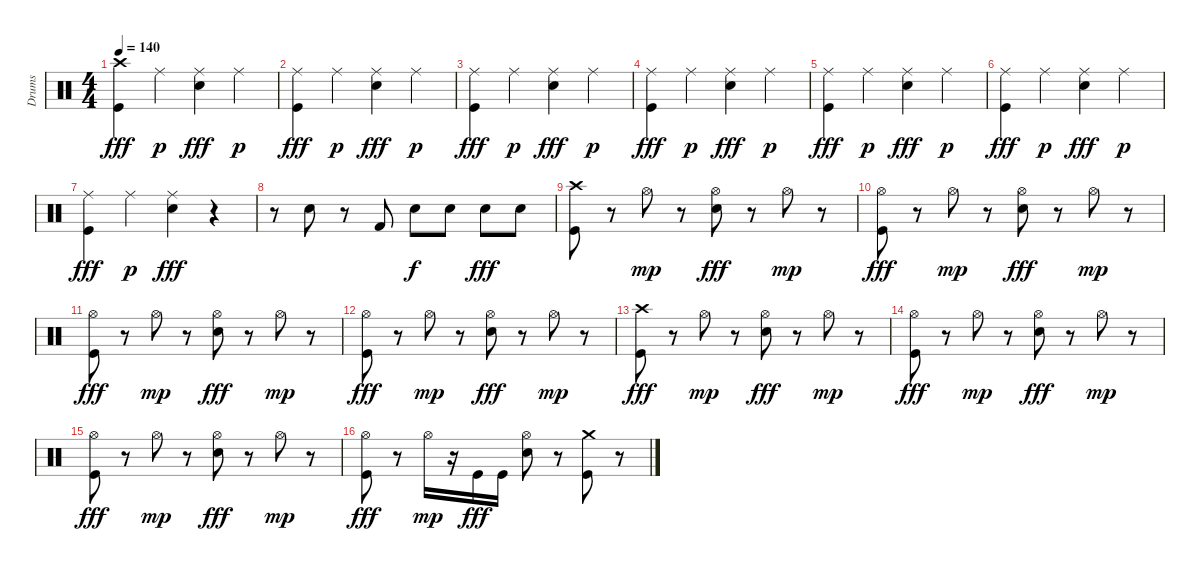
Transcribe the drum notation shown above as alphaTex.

\track ("Drums" "Drums") {instrument percussion}
\staff {score}
\articulation defaults
\ts (4 4)
\tempo 140
\clef neutral
\ks c
("Crash high (hit)" "Kick (hit)").4{dy fff} "Ride (middle)".4{dy p} ("Ride (middle)" "Snare (hit) 2").4{dy fff} "Ride (middle)".4{dy p} |
("Ride (middle)" "Kick (hit)").4{dy fff} "Ride (middle)".4{dy p} ("Ride (middle)" "Snare (hit) 2").4{dy fff} "Ride (middle)".4{dy p} |
("Ride (middle)" "Kick (hit)").4{dy fff} "Ride (middle)".4{dy p} ("Ride (middle)" "Snare (hit) 2").4{dy fff} "Ride (middle)".4{dy p} |
("Ride (middle)" "Kick (hit)").4{dy fff} "Ride (middle)".4{dy p} ("Ride (middle)" "Snare (hit) 2").4{dy fff} "Ride (middle)".4{dy p} |
("Ride (middle)" "Kick (hit)").4{dy fff} "Ride (middle)".4{dy p} ("Ride (middle)" "Snare (hit) 2").4{dy fff} "Ride (middle)".4{dy p} |
("Ride (middle)" "Kick (hit)").4{dy fff} "Ride (middle)".4{dy p} ("Ride (middle)" "Snare (hit) 2").4{dy fff} "Ride (middle)".4{dy p} |
("Ride (middle)" "Kick (hit)").4{dy fff} "Ride (middle)".4{dy p} ("Ride (middle)" "Snare (hit) 2").4{dy fff} r.4 |
r.8 "Snare (hit) 2".8 r.8 "Kick (hit) 2".8 "Snare (hit) 2".8{dy f} "Snare (hit) 2".8 "Snare (hit) 2".8{dy fff} "Snare (hit) 2".8 |
("Crash high (hit)" "Kick (hit)").8 r.8 "Hi-Hat (open)".8{dy mp} r.8 ("Hi-Hat (open)" "Snare (hit) 2").8{dy fff} r.8 "Hi-Hat (open)".8{dy mp} r.8 |
("Hi-Hat (open)" "Kick (hit)").8{dy fff} r.8 "Hi-Hat (open)".8{dy mp} r.8 ("Hi-Hat (open)" "Snare (hit) 2").8{dy fff} r.8 "Hi-Hat (open)".8{dy mp} r.8 |
("Hi-Hat (open)" "Kick (hit)").8{dy fff} r.8 "Hi-Hat (open)".8{dy mp} r.8 ("Hi-Hat (open)" "Snare (hit) 2").8{dy fff} r.8 "Hi-Hat (open)".8{dy mp} r.8 |
("Hi-Hat (open)" "Kick (hit)").8{dy fff} r.8 "Hi-Hat (open)".8{dy mp} r.8 ("Hi-Hat (open)" "Snare (hit) 2").8{dy fff} r.8 "Hi-Hat (open)".8{dy mp} r.8 |
("Crash high (hit)" "Kick (hit)").8{dy fff} r.8 "Hi-Hat (open)".8{dy mp} r.8 ("Hi-Hat (open)" "Snare (hit) 2").8{dy fff} r.8 "Hi-Hat (open)".8{dy mp} r.8 |
("Hi-Hat (open)" "Kick (hit)").8{dy fff} r.8 "Hi-Hat (open)".8{dy mp} r.8 ("Hi-Hat (open)" "Snare (hit) 2").8{dy fff} r.8 "Hi-Hat (open)".8{dy mp} r.8 |
("Hi-Hat (open)" "Kick (hit)").8{dy fff} r.8 "Hi-Hat (open)".8{dy mp} r.8 ("Hi-Hat (open)" "Snare (hit) 2").8{dy fff} r.8 "Hi-Hat (open)".8{dy mp} r.8 |
("Hi-Hat (open)" "Kick (hit)").8{dy fff} r.8 "Hi-Hat (open)".16{dy mp} r.16 "Kick (hit)".16{dy fff} "Kick (hit)".16 ("Hi-Hat (open)" "Snare (hit) 2").8 r.8 ("Crash medium (hit)" "Kick (hit)").8 r.8
